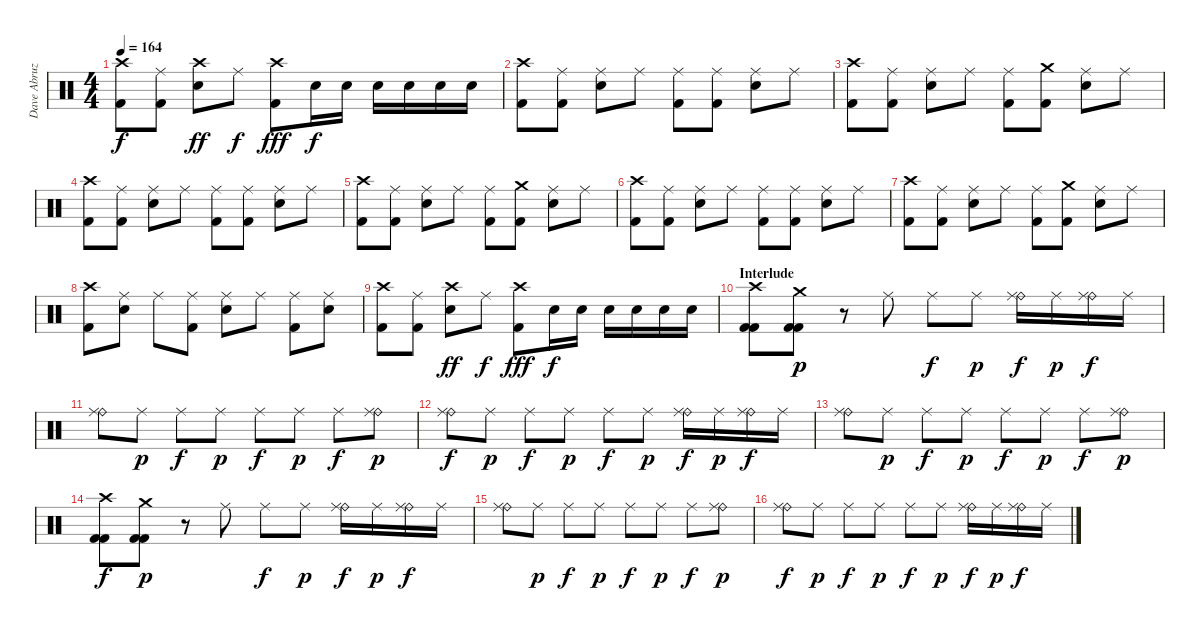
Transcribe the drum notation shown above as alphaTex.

\track ("Dave Abruzzese" "Dave Abruz") {instrument percussion}
\staff {score}
\articulation defaults
\ts (4 4)
\tempo 164
\clef neutral
\ks c
("Crash high (hit)" "Kick (hit) 2").8{dy f} ("Kick (hit) 2" "Ride (middle)").8 ("Crash high (hit)" "Electric Snare (hit)").8{dy ff} "Ride (middle)".8{dy f} ("Crash high (hit)" "Kick (hit) 2").8{dy fff} "Electric Snare (hit)".16{dy f} "Electric Snare (hit)".16 "Electric Snare (hit)".16 "Electric Snare (hit)".16 "Electric Snare (hit)".16 "Electric Snare (hit)".16 |
("Kick (hit) 2" "Crash high (hit)").8 ("Kick (hit) 2" "Ride (middle)").8 ("Electric Snare (hit)" "Ride (middle)").8 "Ride (middle)".8 ("Kick (hit) 2" "Ride (middle)").8 ("Kick (hit) 2" "Ride (middle)").8 ("Electric Snare (hit)" "Ride (middle)").8 "Ride (middle)".8 |
("Kick (hit) 2" "Crash high (hit)").8 ("Kick (hit) 2" "Ride (middle)").8 ("Electric Snare (hit)" "Ride (middle)").8 "Ride (middle)".8 ("Kick (hit) 2" "Ride (middle)").8 ("Kick (hit) 2" "Crash medium (hit)").8 ("Electric Snare (hit)" "Ride (middle)").8 "Ride (middle)".8 |
("Kick (hit) 2" "Crash high (hit)").8 ("Kick (hit) 2" "Ride (middle)").8 ("Electric Snare (hit)" "Ride (middle)").8 "Ride (middle)".8 ("Kick (hit) 2" "Ride (middle)").8 ("Kick (hit) 2" "Ride (middle)").8 ("Electric Snare (hit)" "Ride (middle)").8 "Ride (middle)".8 |
("Kick (hit) 2" "Crash high (hit)").8 ("Kick (hit) 2" "Ride (middle)").8 ("Electric Snare (hit)" "Ride (middle)").8 "Ride (middle)".8 ("Kick (hit) 2" "Ride (middle)").8 ("Kick (hit) 2" "Crash medium (hit)").8 ("Electric Snare (hit)" "Ride (middle)").8 "Ride (middle)".8 |
("Kick (hit) 2" "Crash high (hit)").8 ("Kick (hit) 2" "Ride (middle)").8 ("Electric Snare (hit)" "Ride (middle)").8 "Ride (middle)".8 ("Kick (hit) 2" "Ride (middle)").8 ("Kick (hit) 2" "Ride (middle)").8 ("Electric Snare (hit)" "Ride (middle)").8 "Ride (middle)".8 |
("Kick (hit) 2" "Crash high (hit)").8 ("Kick (hit) 2" "Ride (middle)").8 ("Electric Snare (hit)" "Ride (middle)").8 "Ride (middle)".8 ("Kick (hit) 2" "Ride (middle)").8 ("Kick (hit) 2" "Crash medium (hit)").8 ("Electric Snare (hit)" "Ride (middle)").8 "Ride (middle)".8 |
("Kick (hit) 2" "Crash high (hit)").8 ("Electric Snare (hit)" "Ride (middle)").8 "Ride (middle)".8 ("Kick (hit) 2" "Ride (middle)").8 ("Electric Snare (hit)" "Ride (middle)").8 "Ride (middle)".8 ("Kick (hit) 2" "Ride (middle)").8 ("Electric Snare (hit)" "Ride (middle)").8 |
("Crash high (hit)" "Kick (hit) 2").8 ("Kick (hit) 2" "Ride (middle)").8 ("Crash high (hit)" "Electric Snare (hit)").8{dy ff} "Ride (middle)".8{dy f} ("Crash high (hit)" "Kick (hit) 2").8{dy fff} "Electric Snare (hit)".16{dy f} "Electric Snare (hit)".16 "Electric Snare (hit)".16 "Electric Snare (hit)".16 "Electric Snare (hit)".16 "Electric Snare (hit)".16 |
\section ("" "Interlude")
("Crash high (hit)" "Kick (hit) 2" "Kick (hit) 2").8 ("Crash medium (hit)" "Kick (hit) 2" "Kick (hit) 2").8{dy p} r.8 "Ride (middle)".8 "Ride (middle)".8{dy f} "Ride (middle)".8{dy p} ("Ride (bell)" "Ride (middle)").16{dy f} "Ride (middle)".16{dy p} ("Ride (bell)" "Ride (middle)").16{dy f} "Ride (middle)".16 |
("Ride (bell)" "Ride (middle)").8 "Ride (middle)".8{dy p} "Ride (middle)".8{dy f} "Ride (middle)".8{dy p} "Ride (middle)".8{dy f} "Ride (middle)".8{dy p} "Ride (middle)".8{dy f} ("Ride (bell)" "Ride (middle)").8{dy p} |
("Ride (bell)" "Ride (middle)").8{dy f} "Ride (middle)".8{dy p} "Ride (middle)".8{dy f} "Ride (middle)".8{dy p} "Ride (middle)".8{dy f} "Ride (middle)".8{dy p} ("Ride (bell)" "Ride (middle)").16{dy f} "Ride (middle)".16{dy p} ("Ride (bell)" "Ride (middle)").16{dy f} "Ride (middle)".16 |
("Ride (bell)" "Ride (middle)").8 "Ride (middle)".8{dy p} "Ride (middle)".8{dy f} "Ride (middle)".8{dy p} "Ride (middle)".8{dy f} "Ride (middle)".8{dy p} "Ride (middle)".8{dy f} ("Ride (bell)" "Ride (middle)").8{dy p} |
("Crash high (hit)" "Kick (hit) 2" "Kick (hit) 2").8{dy f} ("Crash medium (hit)" "Kick (hit) 2" "Kick (hit) 2").8{dy p} r.8 "Ride (middle)".8 "Ride (middle)".8{dy f} "Ride (middle)".8{dy p} ("Ride (bell)" "Ride (middle)").16{dy f} "Ride (middle)".16{dy p} ("Ride (bell)" "Ride (middle)").16{dy f} "Ride (middle)".16 |
("Ride (bell)" "Ride (middle)").8 "Ride (middle)".8{dy p} "Ride (middle)".8{dy f} "Ride (middle)".8{dy p} "Ride (middle)".8{dy f} "Ride (middle)".8{dy p} "Ride (middle)".8{dy f} ("Ride (bell)" "Ride (middle)").8{dy p} |
("Ride (bell)" "Ride (middle)").8{dy f} "Ride (middle)".8{dy p} "Ride (middle)".8{dy f} "Ride (middle)".8{dy p} "Ride (middle)".8{dy f} "Ride (middle)".8{dy p} ("Ride (bell)" "Ride (middle)").16{dy f} "Ride (middle)".16{dy p} ("Ride (bell)" "Ride (middle)").16{dy f} "Ride (middle)".16
